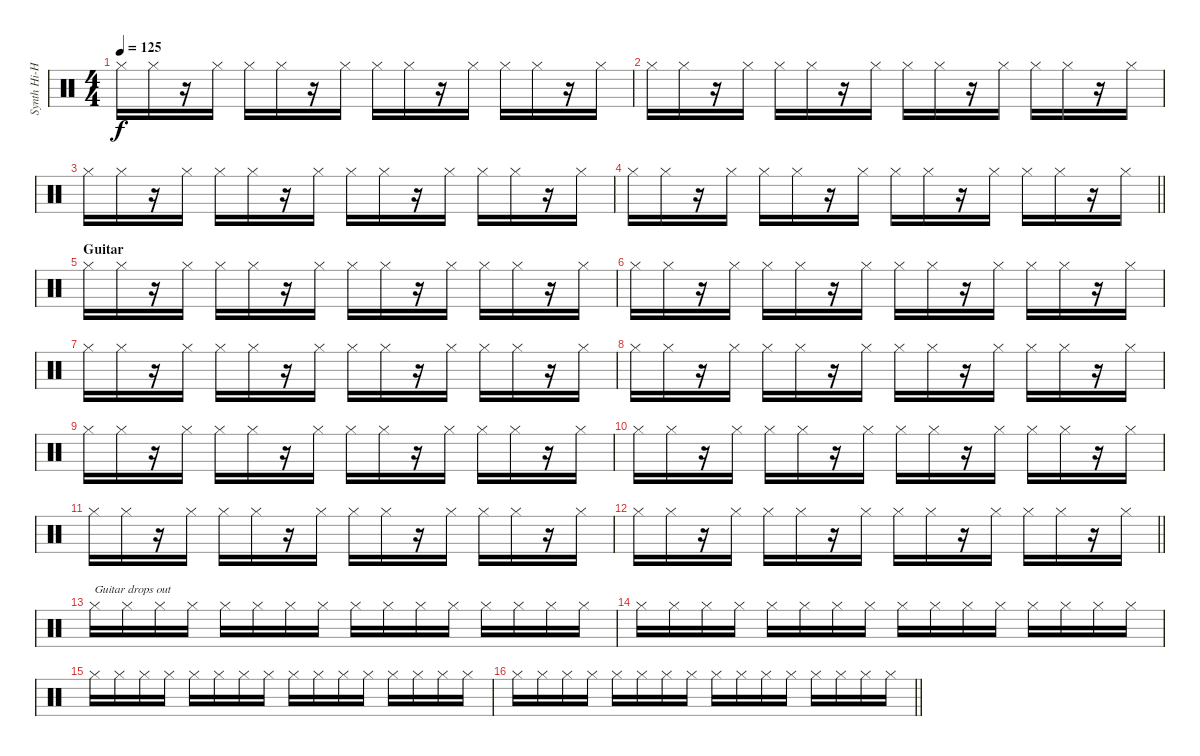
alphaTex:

\track ("Synth Hi-Hat (Gillian Gilbert)" "Synth Hi-H") {instrument percussion}
\staff {score}
\articulation defaults
\ts (4 4)
\tempo 125
\clef neutral
\ks c "Hi-Hat (closed)".16{dy f} "Hi-Hat (closed)".16
r.16 "Hi-Hat (closed)".16 "Hi-Hat (closed)".16 "Hi-Hat (closed)".16 r.16 "Hi-Hat (closed)".16 "Hi-Hat (closed)".16 "Hi-Hat (closed)".16 r.16 "Hi-Hat (closed)".16 "Hi-Hat (closed)".16 "Hi-Hat (closed)".16 r.16 "Hi-Hat (closed)".16 |
"Hi-Hat (closed)".16 "Hi-Hat (closed)".16 r.16 "Hi-Hat (closed)".16 "Hi-Hat (closed)".16 "Hi-Hat (closed)".16 r.16 "Hi-Hat (closed)".16 "Hi-Hat (closed)".16 "Hi-Hat (closed)".16 r.16 "Hi-Hat (closed)".16 "Hi-Hat (closed)".16 "Hi-Hat (closed)".16 r.16 "Hi-Hat (closed)".16 |
"Hi-Hat (closed)".16 "Hi-Hat (closed)".16 r.16 "Hi-Hat (closed)".16 "Hi-Hat (closed)".16 "Hi-Hat (closed)".16 r.16 "Hi-Hat (closed)".16 "Hi-Hat (closed)".16 "Hi-Hat (closed)".16 r.16 "Hi-Hat (closed)".16 "Hi-Hat (closed)".16 "Hi-Hat (closed)".16 r.16 "Hi-Hat (closed)".16 |
\barLineRight lightlight "Hi-Hat (closed)".16 "Hi-Hat (closed)".16
r.16 "Hi-Hat (closed)".16 "Hi-Hat (closed)".16 "Hi-Hat (closed)".16 r.16 "Hi-Hat (closed)".16 "Hi-Hat (closed)".16 "Hi-Hat (closed)".16 r.16 "Hi-Hat (closed)".16 "Hi-Hat (closed)".16 "Hi-Hat (closed)".16 r.16 "Hi-Hat (closed)".16 |
\section ("" "Guitar")
"Hi-Hat (closed)".16 "Hi-Hat (closed)".16 r.16 "Hi-Hat (closed)".16 "Hi-Hat (closed)".16 "Hi-Hat (closed)".16 r.16 "Hi-Hat (closed)".16 "Hi-Hat (closed)".16 "Hi-Hat (closed)".16 r.16 "Hi-Hat (closed)".16 "Hi-Hat (closed)".16 "Hi-Hat (closed)".16 r.16 "Hi-Hat (closed)".16 |
"Hi-Hat (closed)".16 "Hi-Hat (closed)".16 r.16 "Hi-Hat (closed)".16 "Hi-Hat (closed)".16 "Hi-Hat (closed)".16 r.16 "Hi-Hat (closed)".16 "Hi-Hat (closed)".16 "Hi-Hat (closed)".16 r.16 "Hi-Hat (closed)".16 "Hi-Hat (closed)".16 "Hi-Hat (closed)".16 r.16 "Hi-Hat (closed)".16 |
"Hi-Hat (closed)".16 "Hi-Hat (closed)".16 r.16 "Hi-Hat (closed)".16 "Hi-Hat (closed)".16 "Hi-Hat (closed)".16 r.16 "Hi-Hat (closed)".16 "Hi-Hat (closed)".16 "Hi-Hat (closed)".16 r.16 "Hi-Hat (closed)".16 "Hi-Hat (closed)".16 "Hi-Hat (closed)".16 r.16 "Hi-Hat (closed)".16 |
"Hi-Hat (closed)".16 "Hi-Hat (closed)".16 r.16 "Hi-Hat (closed)".16 "Hi-Hat (closed)".16 "Hi-Hat (closed)".16 r.16 "Hi-Hat (closed)".16 "Hi-Hat (closed)".16 "Hi-Hat (closed)".16 r.16 "Hi-Hat (closed)".16 "Hi-Hat (closed)".16 "Hi-Hat (closed)".16 r.16 "Hi-Hat (closed)".16 |
"Hi-Hat (closed)".16 "Hi-Hat (closed)".16 r.16 "Hi-Hat (closed)".16 "Hi-Hat (closed)".16 "Hi-Hat (closed)".16 r.16 "Hi-Hat (closed)".16 "Hi-Hat (closed)".16 "Hi-Hat (closed)".16 r.16 "Hi-Hat (closed)".16 "Hi-Hat (closed)".16 "Hi-Hat (closed)".16 r.16 "Hi-Hat (closed)".16 |
"Hi-Hat (closed)".16 "Hi-Hat (closed)".16 r.16 "Hi-Hat (closed)".16 "Hi-Hat (closed)".16 "Hi-Hat (closed)".16 r.16 "Hi-Hat (closed)".16 "Hi-Hat (closed)".16 "Hi-Hat (closed)".16 r.16 "Hi-Hat (closed)".16 "Hi-Hat (closed)".16 "Hi-Hat (closed)".16 r.16 "Hi-Hat (closed)".16 |
"Hi-Hat (closed)".16 "Hi-Hat (closed)".16 r.16 "Hi-Hat (closed)".16 "Hi-Hat (closed)".16 "Hi-Hat (closed)".16 r.16 "Hi-Hat (closed)".16 "Hi-Hat (closed)".16 "Hi-Hat (closed)".16 r.16 "Hi-Hat (closed)".16 "Hi-Hat (closed)".16 "Hi-Hat (closed)".16 r.16 "Hi-Hat (closed)".16 |
\barLineRight lightlight "Hi-Hat (closed)".16 "Hi-Hat (closed)".16
r.16 "Hi-Hat (closed)".16 "Hi-Hat (closed)".16 "Hi-Hat (closed)".16 r.16 "Hi-Hat (closed)".16 "Hi-Hat (closed)".16 "Hi-Hat (closed)".16 r.16 "Hi-Hat (closed)".16 "Hi-Hat (closed)".16 "Hi-Hat (closed)".16 r.16 "Hi-Hat (closed)".16 |
"Hi-Hat (closed)".16{txt "Guitar drops out"} "Hi-Hat (closed)".16 "Hi-Hat (closed)".16 "Hi-Hat (closed)".16 "Hi-Hat (closed)".16 "Hi-Hat (closed)".16 "Hi-Hat (closed)".16 "Hi-Hat (closed)".16 "Hi-Hat (closed)".16 "Hi-Hat (closed)".16 "Hi-Hat (closed)".16 "Hi-Hat (closed)".16 "Hi-Hat (closed)".16 "Hi-Hat (closed)".16 "Hi-Hat (closed)".16 "Hi-Hat (closed)".16 |
"Hi-Hat (closed)".16 "Hi-Hat (closed)".16 "Hi-Hat (closed)".16 "Hi-Hat (closed)".16 "Hi-Hat (closed)".16 "Hi-Hat (closed)".16 "Hi-Hat (closed)".16 "Hi-Hat (closed)".16 "Hi-Hat (closed)".16 "Hi-Hat (closed)".16 "Hi-Hat (closed)".16 "Hi-Hat (closed)".16 "Hi-Hat (closed)".16 "Hi-Hat (closed)".16 "Hi-Hat (closed)".16 "Hi-Hat (closed)".16 |
"Hi-Hat (closed)".16 "Hi-Hat (closed)".16 "Hi-Hat (closed)".16 "Hi-Hat (closed)".16 "Hi-Hat (closed)".16 "Hi-Hat (closed)".16 "Hi-Hat (closed)".16 "Hi-Hat (closed)".16 "Hi-Hat (closed)".16 "Hi-Hat (closed)".16 "Hi-Hat (closed)".16 "Hi-Hat (closed)".16 "Hi-Hat (closed)".16 "Hi-Hat (closed)".16 "Hi-Hat (closed)".16 "Hi-Hat (closed)".16 |
\barLineRight lightlight "Hi-Hat (closed)".16 "Hi-Hat (closed)".16 "Hi-Hat (closed)".16 "Hi-Hat (closed)".16 "Hi-Hat (closed)".16 "Hi-Hat (closed)".16 "Hi-Hat (closed)".16 "Hi-Hat (closed)".16 "Hi-Hat (closed)".16 "Hi-Hat (closed)".16 "Hi-Hat (closed)".16 "Hi-Hat (closed)".16 "Hi-Hat (closed)".16 "Hi-Hat (closed)".16 "Hi-Hat (closed)".16 "Hi-Hat (closed)".16
